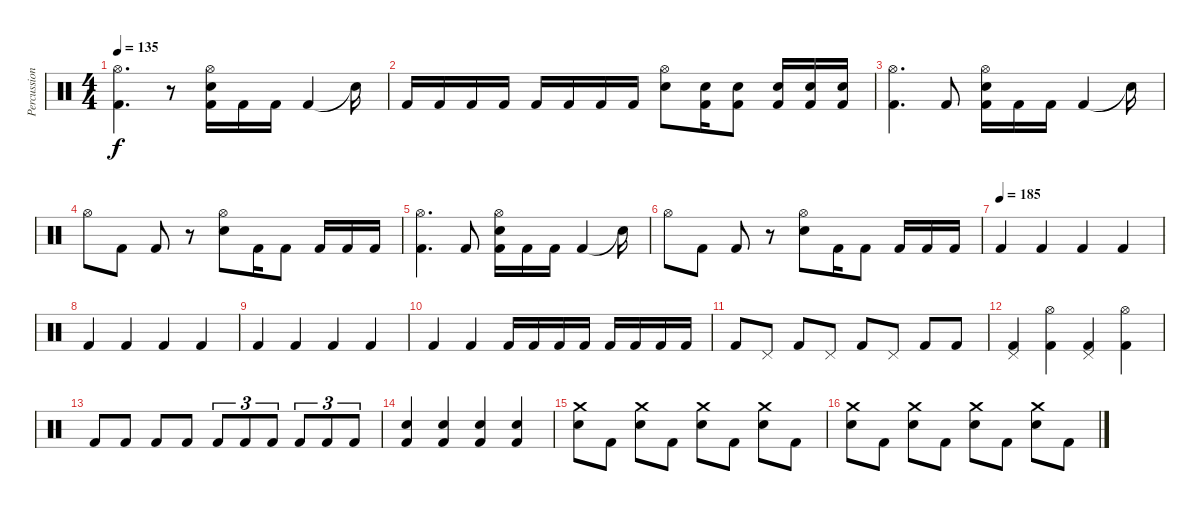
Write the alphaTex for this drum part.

\track ("Percussion" "Percussion") {instrument percussion}
\staff {score}
\articulation defaults
\ts (4 4)
\tempo 135
\clef neutral
\ks c
("Hi-Hat (open)" "Kick (hit) 2").4{d dy f} r.8 ("Hi-Hat (open)" "Electric Snare (hit)" "Kick (hit) 2").16 "Kick (hit) 2".16 "Kick (hit) 2".16 "Kick (hit) 2".4 "Snare (hit)"{t}.16 |
"Kick (hit) 2".16 "Kick (hit) 2".16 "Kick (hit) 2".16 "Kick (hit) 2".16 "Kick (hit) 2".16 "Kick (hit) 2".16 "Kick (hit) 2".16 "Kick (hit) 2".16 ("Hi-Hat (open)" "Electric Snare (hit)").8 ("Electric Snare (hit)" "Kick (hit) 2").16 ("Electric Snare (hit)" "Kick (hit) 2").8 ("Electric Snare (hit)" "Kick (hit) 2").16 ("Electric Snare (hit)" "Kick (hit) 2").16 ("Electric Snare (hit)" "Kick (hit) 2").16 |
("Hi-Hat (open)" "Kick (hit) 2").4{d} "Kick (hit) 2".8 ("Hi-Hat (open)" "Electric Snare (hit)" "Kick (hit) 2").16 "Kick (hit) 2".16 "Kick (hit) 2".16 "Kick (hit) 2".4 "Snare (hit)"{t}.16 |
"Hi-Hat (open)".8 "Kick (hit) 2".8 "Kick (hit) 2".8 r.8 ("Hi-Hat (open)" "Electric Snare (hit)").8 "Kick (hit) 2".16 "Kick (hit) 2".8 "Kick (hit) 2".16 "Kick (hit) 2".16 "Kick (hit) 2".16 |
("Hi-Hat (open)" "Kick (hit) 2").4{d} "Kick (hit) 2".8 ("Hi-Hat (open)" "Electric Snare (hit)" "Kick (hit) 2").16 "Kick (hit) 2".16 "Kick (hit) 2".16 "Kick (hit) 2".4 "Snare (hit)"{t}.16 |
"Hi-Hat (open)".8 "Kick (hit) 2".8 "Kick (hit) 2".8 r.8 ("Hi-Hat (open)" "Electric Snare (hit)").8 "Kick (hit) 2".16 "Kick (hit) 2".8 "Kick (hit) 2".16 "Kick (hit) 2".16 "Kick (hit) 2".16 |
\tempo (185)
"Kick (hit) 2".4 "Kick (hit) 2".4 "Kick (hit) 2".4 "Kick (hit) 2".4 |
"Kick (hit) 2".4 "Kick (hit) 2".4 "Kick (hit) 2".4 "Kick (hit) 2".4 |
"Kick (hit) 2".4 "Kick (hit) 2".4 "Kick (hit) 2".4 "Kick (hit) 2".4 |
"Kick (hit) 2".4 "Kick (hit) 2".4 "Kick (hit) 2".16 "Kick (hit) 2".16 "Kick (hit) 2".16 "Kick (hit) 2".16 "Kick (hit) 2".16 "Kick (hit) 2".16 "Kick (hit) 2".16 "Kick (hit) 2".16 |
"Kick (hit) 2".8 "Pedal Hi-Hat (hit)".8 "Kick (hit) 2".8 "Pedal Hi-Hat (hit)".8 "Kick (hit) 2".8 "Pedal Hi-Hat (hit)".8 "Kick (hit) 2".8 "Kick (hit) 2".8 |
("Pedal Hi-Hat (hit)" "Kick (hit) 2").4 ("Hi-Hat (open)" "Kick (hit) 2").4 ("Pedal Hi-Hat (hit)" "Kick (hit) 2").4 ("Hi-Hat (open)" "Kick (hit) 2").4 |
"Kick (hit) 2".8 "Kick (hit) 2".8 "Kick (hit) 2".8 "Kick (hit) 2".8 "Kick (hit) 2".8{tu (3 2)} "Kick (hit) 2".8{tu (3 2)} "Kick (hit) 2".8{tu (3 2)} "Kick (hit) 2".8{tu (3 2)} "Kick (hit) 2".8{tu (3 2)} "Kick (hit) 2".8{tu (3 2)} |
("Electric Snare (hit)" "Kick (hit) 2").4 ("Electric Snare (hit)" "Kick (hit) 2").4 ("Electric Snare (hit)" "Kick (hit) 2").4 ("Electric Snare (hit)" "Kick (hit) 2").4 |
("Crash medium (hit)" "Electric Snare (hit)").8 "Kick (hit) 2".8 ("Crash medium (hit)" "Electric Snare (hit)").8 "Kick (hit) 2".8 ("Crash medium (hit)" "Electric Snare (hit)").8 "Kick (hit) 2".8 ("Crash medium (hit)" "Electric Snare (hit)").8 "Kick (hit) 2".8 |
("Crash medium (hit)" "Electric Snare (hit)").8 "Kick (hit) 2".8 ("Crash medium (hit)" "Electric Snare (hit)").8 "Kick (hit) 2".8 ("Crash medium (hit)" "Electric Snare (hit)").8 "Kick (hit) 2".8 ("Crash medium (hit)" "Electric Snare (hit)").8 "Kick (hit) 2".8
